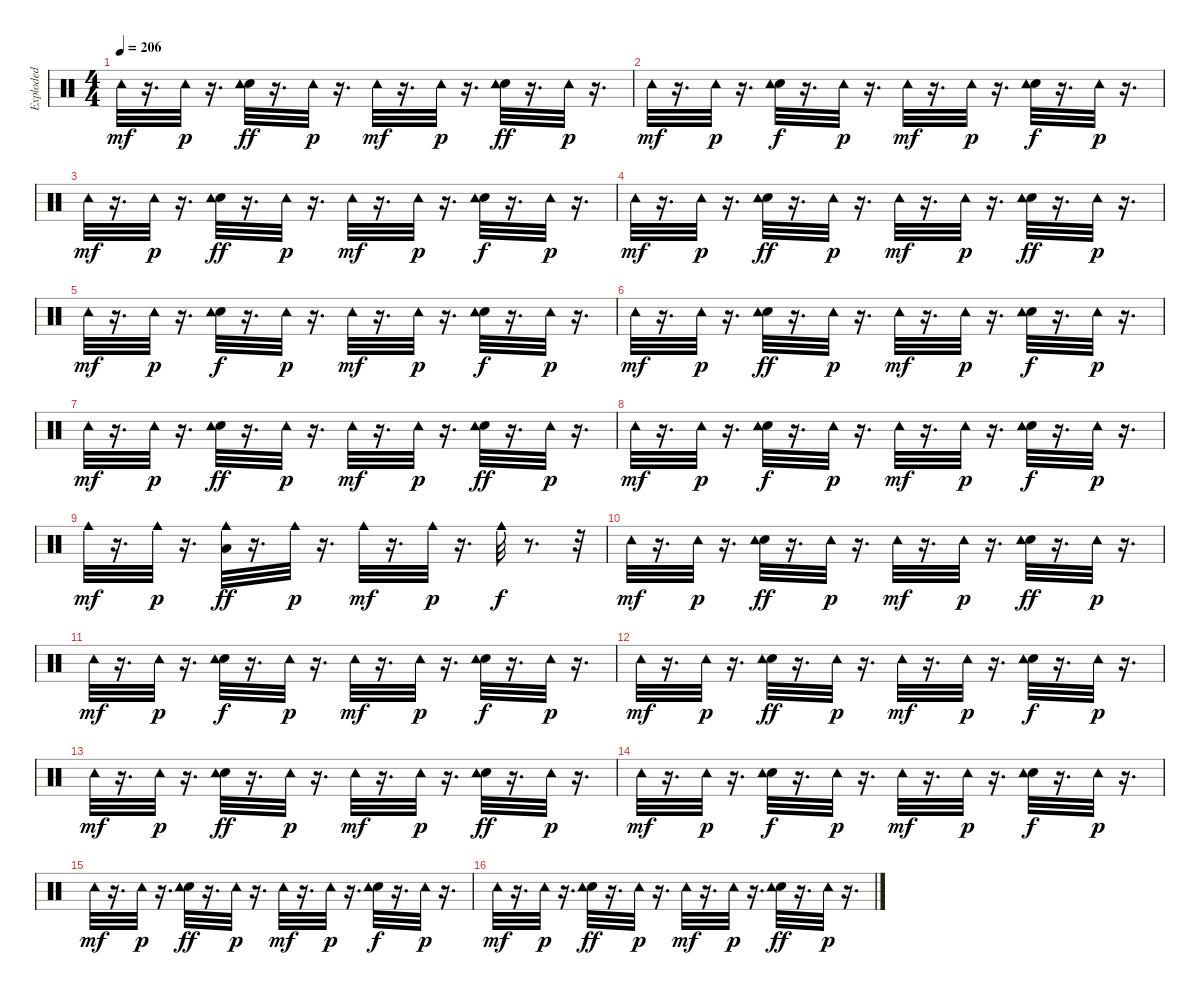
\track ("Exploded" "Exploded") {instrument percussion}
\staff {score}
\articulation defaults
\ts (4 4)
\tempo 206
\clef neutral
\ks c "Tambourine (hit)".32{dy mf}
r.16{d} "Tambourine (hit)".32{dy p} r.16{d} ("Hand Clap (hit)" "Tambourine (hit)").32{dy ff} r.16{d} "Tambourine (hit)".32{dy p} r.16{d} "Tambourine (hit)".32{dy mf} r.16{d} "Tambourine (hit)".32{dy p} r.16{d} ("Hand Clap (hit)" "Tambourine (hit)").32{dy ff} r.16{d} "Tambourine (hit)".32{dy p} r.16{d} |
"Tambourine (hit)".32{dy mf} r.16{d} "Tambourine (hit)".32{dy p} r.16{d} ("Hand Clap (hit)" "Tambourine (hit)").32{dy f} r.16{d} "Tambourine (hit)".32{dy p} r.16{d} "Tambourine (hit)".32{dy mf} r.16{d} "Tambourine (hit)".32{dy p} r.16{d} ("Hand Clap (hit)" "Tambourine (hit)").32{dy f} r.16{d} "Tambourine (hit)".32{dy p} r.16{d} |
"Tambourine (hit)".32{dy mf} r.16{d} "Tambourine (hit)".32{dy p} r.16{d} ("Hand Clap (hit)" "Tambourine (hit)").32{dy ff} r.16{d} "Tambourine (hit)".32{dy p} r.16{d} "Tambourine (hit)".32{dy mf} r.16{d} "Tambourine (hit)".32{dy p} r.16{d} ("Hand Clap (hit)" "Tambourine (hit)").32{dy f} r.16{d} "Tambourine (hit)".32{dy p} r.16{d} |
"Tambourine (hit)".32{dy mf} r.16{d} "Tambourine (hit)".32{dy p} r.16{d} ("Hand Clap (hit)" "Tambourine (hit)").32{dy ff} r.16{d} "Tambourine (hit)".32{dy p} r.16{d} "Tambourine (hit)".32{dy mf} r.16{d} "Tambourine (hit)".32{dy p} r.16{d} ("Hand Clap (hit)" "Tambourine (hit)").32{dy ff} r.16{d} "Tambourine (hit)".32{dy p} r.16{d} |
"Tambourine (hit)".32{dy mf} r.16{d} "Tambourine (hit)".32{dy p} r.16{d} ("Hand Clap (hit)" "Tambourine (hit)").32{dy f} r.16{d} "Tambourine (hit)".32{dy p} r.16{d} "Tambourine (hit)".32{dy mf} r.16{d} "Tambourine (hit)".32{dy p} r.16{d} ("Hand Clap (hit)" "Tambourine (hit)").32{dy f} r.16{d} "Tambourine (hit)".32{dy p} r.16{d} |
"Tambourine (hit)".32{dy mf} r.16{d} "Tambourine (hit)".32{dy p} r.16{d} ("Hand Clap (hit)" "Tambourine (hit)").32{dy ff} r.16{d} "Tambourine (hit)".32{dy p} r.16{d} "Tambourine (hit)".32{dy mf} r.16{d} "Tambourine (hit)".32{dy p} r.16{d} ("Hand Clap (hit)" "Tambourine (hit)").32{dy f} r.16{d} "Tambourine (hit)".32{dy p} r.16{d} |
"Tambourine (hit)".32{dy mf} r.16{d} "Tambourine (hit)".32{dy p} r.16{d} ("Hand Clap (hit)" "Tambourine (hit)").32{dy ff} r.16{d} "Tambourine (hit)".32{dy p} r.16{d} "Tambourine (hit)".32{dy mf} r.16{d} "Tambourine (hit)".32{dy p} r.16{d} ("Hand Clap (hit)" "Tambourine (hit)").32{dy ff} r.16{d} "Tambourine (hit)".32{dy p} r.16{d} |
"Tambourine (hit)".32{dy mf} r.16{d} "Tambourine (hit)".32{dy p} r.16{d} ("Hand Clap (hit)" "Tambourine (hit)").32{dy f} r.16{d} "Tambourine (hit)".32{dy p} r.16{d} "Tambourine (hit)".32{dy mf} r.16{d} "Tambourine (hit)".32{dy p} r.16{d} ("Hand Clap (hit)" "Tambourine (hit)").32{dy f} r.16{d} "Tambourine (hit)".32{dy p} r.16{d} |
"Cowbell medium (hit)".32{dy mf} r.16{d} "Cowbell medium (hit)".32{dy p} r.16{d} ("Low Floor Tom (hit)" "Cowbell medium (hit)").32{dy ff} r.16{d} "Cowbell medium (hit)".32{dy p} r.16{d} "Cowbell medium (hit)".32{dy mf} r.16{d} "Cowbell medium (hit)".32{dy p} r.16{d} "Cowbell medium (hit)".32{dy f} r.8{d} r.32 |
"Tambourine (hit)".32{dy mf} r.16{d} "Tambourine (hit)".32{dy p} r.16{d} ("Hand Clap (hit)" "Tambourine (hit)").32{dy ff} r.16{d} "Tambourine (hit)".32{dy p} r.16{d} "Tambourine (hit)".32{dy mf} r.16{d} "Tambourine (hit)".32{dy p} r.16{d} ("Hand Clap (hit)" "Tambourine (hit)").32{dy ff} r.16{d} "Tambourine (hit)".32{dy p} r.16{d} |
"Tambourine (hit)".32{dy mf} r.16{d} "Tambourine (hit)".32{dy p} r.16{d} ("Hand Clap (hit)" "Tambourine (hit)").32{dy f} r.16{d} "Tambourine (hit)".32{dy p} r.16{d} "Tambourine (hit)".32{dy mf} r.16{d} "Tambourine (hit)".32{dy p} r.16{d} ("Hand Clap (hit)" "Tambourine (hit)").32{dy f} r.16{d} "Tambourine (hit)".32{dy p} r.16{d} |
"Tambourine (hit)".32{dy mf} r.16{d} "Tambourine (hit)".32{dy p} r.16{d} ("Hand Clap (hit)" "Tambourine (hit)").32{dy ff} r.16{d} "Tambourine (hit)".32{dy p} r.16{d} "Tambourine (hit)".32{dy mf} r.16{d} "Tambourine (hit)".32{dy p} r.16{d} ("Hand Clap (hit)" "Tambourine (hit)").32{dy f} r.16{d} "Tambourine (hit)".32{dy p} r.16{d} |
"Tambourine (hit)".32{dy mf} r.16{d} "Tambourine (hit)".32{dy p} r.16{d} ("Hand Clap (hit)" "Tambourine (hit)").32{dy ff} r.16{d} "Tambourine (hit)".32{dy p} r.16{d} "Tambourine (hit)".32{dy mf} r.16{d} "Tambourine (hit)".32{dy p} r.16{d} ("Hand Clap (hit)" "Tambourine (hit)").32{dy ff} r.16{d} "Tambourine (hit)".32{dy p} r.16{d} |
"Tambourine (hit)".32{dy mf} r.16{d} "Tambourine (hit)".32{dy p} r.16{d} ("Hand Clap (hit)" "Tambourine (hit)").32{dy f} r.16{d} "Tambourine (hit)".32{dy p} r.16{d} "Tambourine (hit)".32{dy mf} r.16{d} "Tambourine (hit)".32{dy p} r.16{d} ("Hand Clap (hit)" "Tambourine (hit)").32{dy f} r.16{d} "Tambourine (hit)".32{dy p} r.16{d} |
"Tambourine (hit)".32{dy mf} r.16{d} "Tambourine (hit)".32{dy p} r.16{d} ("Hand Clap (hit)" "Tambourine (hit)").32{dy ff} r.16{d} "Tambourine (hit)".32{dy p} r.16{d} "Tambourine (hit)".32{dy mf} r.16{d} "Tambourine (hit)".32{dy p} r.16{d} ("Hand Clap (hit)" "Tambourine (hit)").32{dy f} r.16{d} "Tambourine (hit)".32{dy p} r.16{d} |
"Tambourine (hit)".32{dy mf} r.16{d} "Tambourine (hit)".32{dy p} r.16{d} ("Hand Clap (hit)" "Tambourine (hit)").32{dy ff} r.16{d} "Tambourine (hit)".32{dy p} r.16{d} "Tambourine (hit)".32{dy mf} r.16{d} "Tambourine (hit)".32{dy p} r.16{d} ("Hand Clap (hit)" "Tambourine (hit)").32{dy ff} r.16{d} "Tambourine (hit)".32{dy p} r.16{d}
